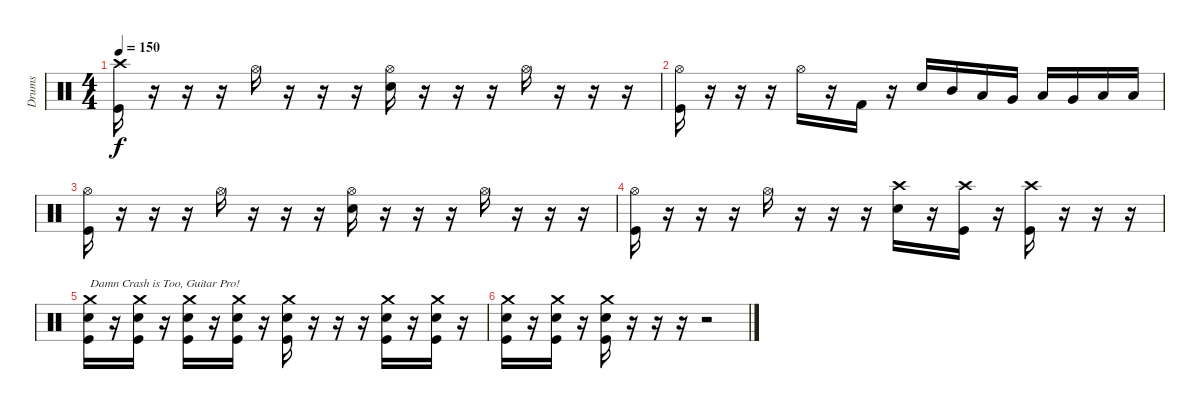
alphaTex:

\track ("Drums" "Drums") {instrument percussion}
\staff {score}
\articulation defaults
\ts (4 4)
\tempo 150
\clef neutral
\ks c
("Crash high (hit)" "Kick (hit)").16{dy f} r.16 r.16 r.16 "Hi-Hat (open)".16 r.16 r.16 r.16 ("Hi-Hat (open)" "Snare (hit) 2").16 r.16 r.16 r.16 "Hi-Hat (open)".16 r.16 r.16 r.16 |
("Hi-Hat (open)" "Kick (hit)").16 r.16 r.16 r.16 "Hi-Hat (open)".16 r.16 "Kick (hit) 2".16 r.16 "Snare (hit) 2".16 "Mid Tom (hit)".16 "Low Tom (hit)".16 "Very Low Tom (hit)".16 "Low Tom (hit)".16 "Very Low Tom (hit)".16 "Low Floor Tom (hit)".16 "Low Floor Tom (hit)".16 |
("Hi-Hat (open)" "Kick (hit)").16 r.16 r.16 r.16 "Hi-Hat (open)".16 r.16 r.16 r.16 ("Hi-Hat (open)" "Snare (hit) 2").16 r.16 r.16 r.16 "Hi-Hat (open)".16 r.16 r.16 r.16 |
("Hi-Hat (open)" "Kick (hit)").16 r.16 r.16 r.16 "Hi-Hat (open)".16 r.16 r.16 r.16 ("Crash high (hit)" "Snare (hit) 2").16 r.16 ("Crash high (hit)" "Kick (hit)").16 r.16 ("Crash high (hit)" "Kick (hit)").16 r.16 r.16 r.16 |
("Crash medium (hit)" "Snare (hit) 2" "Kick (hit)").16{txt "Damn Crash is Too, Guitar Pro!"} r.16 ("Crash medium (hit)" "Snare (hit) 2" "Kick (hit)").16 r.16 ("Crash medium (hit)" "Snare (hit) 2" "Kick (hit)").16 r.16 ("Crash medium (hit)" "Snare (hit) 2" "Kick (hit)").16 r.16 ("Crash medium (hit)" "Snare (hit) 2" "Kick (hit)").16 r.16 r.16 r.16 ("Crash medium (hit)" "Snare (hit) 2" "Kick (hit)").16 r.16 ("Crash medium (hit)" "Snare (hit) 2" "Kick (hit)").16 r.16 |
("Crash medium (hit)" "Snare (hit) 2" "Kick (hit)").16 r.16 ("Crash medium (hit)" "Snare (hit) 2" "Kick (hit)").16 r.16 ("Crash medium (hit)" "Snare (hit) 2" "Kick (hit)").16 r.16 r.16 r.16 r.2
